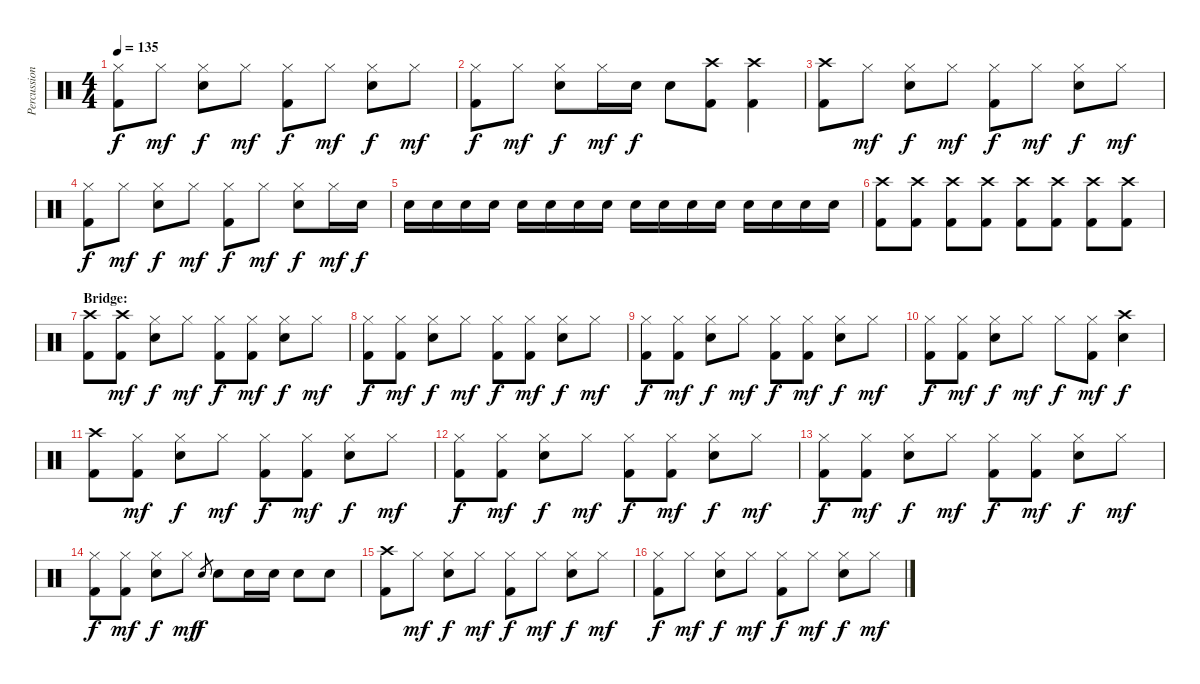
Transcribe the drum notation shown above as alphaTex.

\track ("Percussion" "Percussion") {instrument percussion}
\staff {score}
\articulation defaults
\ts (4 4)
\tempo 135
\clef neutral
\ks c
("Hi-Hat (closed)" "Kick (hit) 2").8{dy f} "Hi-Hat (closed)".8{dy mf} ("Hi-Hat (closed)" "Snare (hit) 2").8{dy f} "Hi-Hat (closed)".8{dy mf} ("Hi-Hat (closed)" "Kick (hit) 2").8{dy f} "Hi-Hat (closed)".8{dy mf} ("Hi-Hat (closed)" "Snare (hit) 2").8{dy f} "Hi-Hat (closed)".8{dy mf} |
("Hi-Hat (closed)" "Kick (hit) 2").8{dy f} "Hi-Hat (closed)".8{dy mf} ("Hi-Hat (closed)" "Snare (hit) 2").8{dy f} "Hi-Hat (closed)".16{dy mf} "Snare (hit) 2".16{dy f} "Snare (hit) 2".8 ("Crash high (hit)" "Kick (hit) 2").8 ("Crash high (hit)" "Kick (hit) 2").4 |
("Crash high (hit)" "Kick (hit) 2").8 "Hi-Hat (closed)".8{dy mf} ("Hi-Hat (closed)" "Snare (hit) 2").8{dy f} "Hi-Hat (closed)".8{dy mf} ("Hi-Hat (closed)" "Kick (hit) 2").8{dy f} "Hi-Hat (closed)".8{dy mf} ("Hi-Hat (closed)" "Snare (hit) 2").8{dy f} "Hi-Hat (closed)".8{dy mf} |
("Hi-Hat (closed)" "Kick (hit) 2").8{dy f} "Hi-Hat (closed)".8{dy mf} ("Hi-Hat (closed)" "Snare (hit) 2").8{dy f} "Hi-Hat (closed)".8{dy mf} ("Hi-Hat (closed)" "Kick (hit) 2").8{dy f} "Hi-Hat (closed)".8{dy mf} ("Hi-Hat (closed)" "Snare (hit) 2").8{dy f} "Hi-Hat (closed)".16{dy mf} "Snare (hit) 2".16{dy f} |
"Snare (hit) 2".16 "Snare (hit) 2".16 "Snare (hit) 2".16 "Snare (hit) 2".16 "Snare (hit) 2".16 "Snare (hit) 2".16 "Snare (hit) 2".16 "Snare (hit) 2".16 "Snare (hit) 2".16 "Snare (hit) 2".16 "Snare (hit) 2".16 "Snare (hit) 2".16 "Snare (hit) 2".16 "Snare (hit) 2".16 "Snare (hit) 2".16 "Snare (hit) 2".16 |
("Crash high (hit)" "Kick (hit) 2").8 ("Crash high (hit)" "Kick (hit) 2").8 ("Crash high (hit)" "Kick (hit) 2").8 ("Crash high (hit)" "Kick (hit) 2").8 ("Crash high (hit)" "Kick (hit) 2").8 ("Crash high (hit)" "Kick (hit) 2").8 ("Crash high (hit)" "Kick (hit) 2").8 ("Crash high (hit)" "Kick (hit) 2").8 |
\section ("" "Bridge:")
("Crash high (hit)" "Kick (hit) 2").8 ("Crash high (hit)" "Kick (hit) 2").8{dy mf} ("Hi-Hat (closed)" "Snare (hit) 2").8{dy f} "Hi-Hat (closed)".8{dy mf} ("Hi-Hat (closed)" "Kick (hit) 2").8{dy f} ("Hi-Hat (closed)" "Kick (hit) 2").8{dy mf} ("Hi-Hat (closed)" "Snare (hit) 2").8{dy f} "Hi-Hat (closed)".8{dy mf} |
("Hi-Hat (closed)" "Kick (hit) 2").8{dy f} ("Hi-Hat (closed)" "Kick (hit) 2").8{dy mf} ("Hi-Hat (closed)" "Snare (hit) 2").8{dy f} "Hi-Hat (closed)".8{dy mf} ("Hi-Hat (closed)" "Kick (hit) 2").8{dy f} ("Hi-Hat (closed)" "Kick (hit) 2").8{dy mf} ("Hi-Hat (closed)" "Snare (hit) 2").8{dy f} "Hi-Hat (closed)".8{dy mf} |
("Hi-Hat (closed)" "Kick (hit) 2").8{dy f} ("Hi-Hat (closed)" "Kick (hit) 2").8{dy mf} ("Hi-Hat (closed)" "Snare (hit) 2").8{dy f} "Hi-Hat (closed)".8{dy mf} ("Hi-Hat (closed)" "Kick (hit) 2").8{dy f} ("Hi-Hat (closed)" "Kick (hit) 2").8{dy mf} ("Hi-Hat (closed)" "Snare (hit) 2").8{dy f} "Hi-Hat (closed)".8{dy mf} |
("Hi-Hat (closed)" "Kick (hit) 2").8{dy f} ("Hi-Hat (closed)" "Kick (hit) 2").8{dy mf} ("Hi-Hat (closed)" "Snare (hit) 2").8{dy f} "Hi-Hat (closed)".8{dy mf} "Hi-Hat (closed)".8{dy f} ("Hi-Hat (closed)" "Kick (hit) 2").8{dy mf} ("Crash high (hit)" "Snare (hit) 2").4{dy f} |
("Crash high (hit)" "Kick (hit) 2").8 ("Hi-Hat (closed)" "Kick (hit) 2").8{dy mf} ("Hi-Hat (closed)" "Snare (hit) 2").8{dy f} "Hi-Hat (closed)".8{dy mf} ("Hi-Hat (closed)" "Kick (hit) 2").8{dy f} ("Hi-Hat (closed)" "Kick (hit) 2").8{dy mf} ("Hi-Hat (closed)" "Snare (hit) 2").8{dy f} "Hi-Hat (closed)".8{dy mf} |
("Hi-Hat (closed)" "Kick (hit) 2").8{dy f} ("Hi-Hat (closed)" "Kick (hit) 2").8{dy mf} ("Hi-Hat (closed)" "Snare (hit) 2").8{dy f} "Hi-Hat (closed)".8{dy mf} ("Hi-Hat (closed)" "Kick (hit) 2").8{dy f} ("Hi-Hat (closed)" "Kick (hit) 2").8{dy mf} ("Hi-Hat (closed)" "Snare (hit) 2").8{dy f} "Hi-Hat (closed)".8{dy mf} |
("Hi-Hat (closed)" "Kick (hit) 2").8{dy f} ("Hi-Hat (closed)" "Kick (hit) 2").8{dy mf} ("Hi-Hat (closed)" "Snare (hit) 2").8{dy f} "Hi-Hat (closed)".8{dy mf} ("Hi-Hat (closed)" "Kick (hit) 2").8{dy f} ("Hi-Hat (closed)" "Kick (hit) 2").8{dy mf} ("Hi-Hat (closed)" "Snare (hit) 2").8{dy f} "Hi-Hat (closed)".8{dy mf} |
("Hi-Hat (closed)" "Kick (hit) 2").8{dy f} ("Hi-Hat (closed)" "Kick (hit) 2").8{dy mf} ("Hi-Hat (closed)" "Snare (hit) 2").8{dy f} "Hi-Hat (closed)".8{dy mf} "Snare (hit) 2".8{gr dy f} "Snare (hit) 2".8 "Snare (hit) 2".16 "Snare (hit) 2".16 "Snare (hit) 2".8 "Snare (hit) 2".8 |
("Crash high (hit)" "Kick (hit) 2").8 "Hi-Hat (closed)".8{dy mf} ("Hi-Hat (closed)" "Snare (hit) 2").8{dy f} "Hi-Hat (closed)".8{dy mf} ("Hi-Hat (closed)" "Kick (hit) 2").8{dy f} "Hi-Hat (closed)".8{dy mf} ("Hi-Hat (closed)" "Snare (hit) 2").8{dy f} "Hi-Hat (closed)".8{dy mf} |
("Hi-Hat (closed)" "Kick (hit) 2").8{dy f} "Hi-Hat (closed)".8{dy mf} ("Hi-Hat (closed)" "Snare (hit) 2").8{dy f} "Hi-Hat (closed)".8{dy mf} ("Hi-Hat (closed)" "Kick (hit) 2").8{dy f} "Hi-Hat (closed)".8{dy mf} ("Hi-Hat (closed)" "Snare (hit) 2").8{dy f} "Hi-Hat (closed)".8{dy mf}
